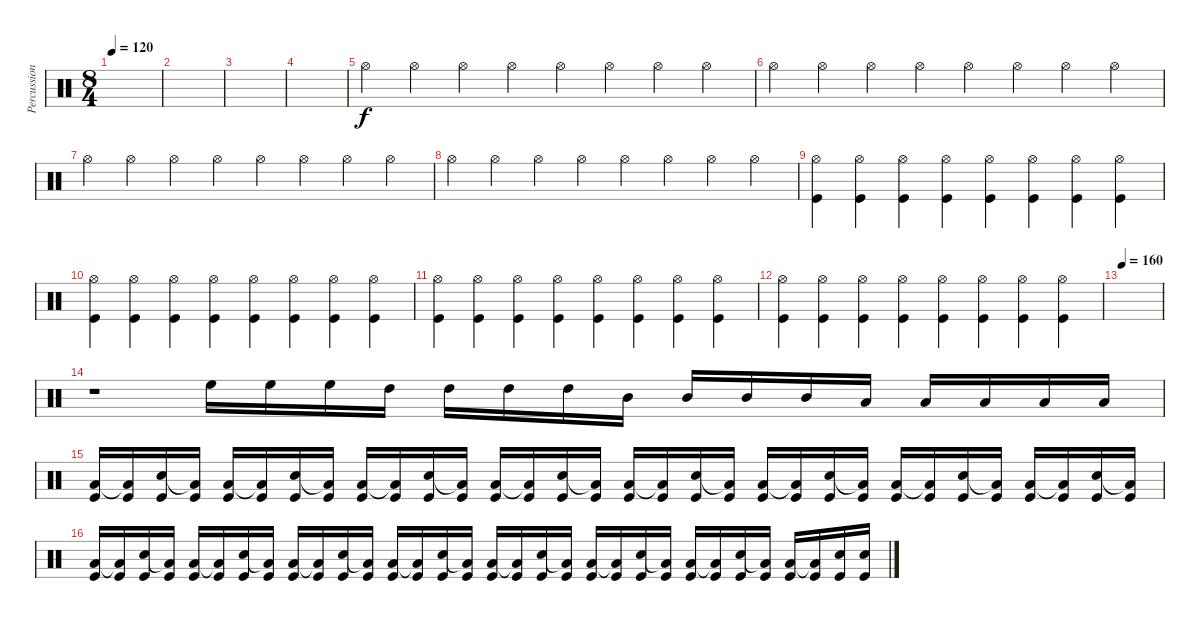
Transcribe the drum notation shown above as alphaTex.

\track ("Percussioni" "Percussion") {instrument percussion}
\staff {score}
\articulation defaults
\ts (8 4)
\tempo 120
\clef neutral
\ks c
|
|
|
|
"Hi-Hat (open)".4 "Hi-Hat (open)".4 "Hi-Hat (open)".4 "Hi-Hat (open)".4 "Hi-Hat (open)".4 "Hi-Hat (open)".4 "Hi-Hat (open)".4 "Hi-Hat (open)".4 |
"Hi-Hat (open)".4 "Hi-Hat (open)".4 "Hi-Hat (open)".4 "Hi-Hat (open)".4 "Hi-Hat (open)".4 "Hi-Hat (open)".4 "Hi-Hat (open)".4 "Hi-Hat (open)".4 |
"Hi-Hat (open)".4 "Hi-Hat (open)".4 "Hi-Hat (open)".4 "Hi-Hat (open)".4 "Hi-Hat (open)".4 "Hi-Hat (open)".4 "Hi-Hat (open)".4 "Hi-Hat (open)".4 |
"Hi-Hat (open)".4 "Hi-Hat (open)".4 "Hi-Hat (open)".4 "Hi-Hat (open)".4 "Hi-Hat (open)".4 "Hi-Hat (open)".4 "Hi-Hat (open)".4 "Hi-Hat (open)".4 |
("Hi-Hat (open)" "Kick (hit)").4 ("Hi-Hat (open)" "Kick (hit)").4 ("Hi-Hat (open)" "Kick (hit)").4 ("Hi-Hat (open)" "Kick (hit)").4 ("Hi-Hat (open)" "Kick (hit)").4 ("Hi-Hat (open)" "Kick (hit)").4 ("Hi-Hat (open)" "Kick (hit)").4 ("Hi-Hat (open)" "Kick (hit)").4 |
("Hi-Hat (open)" "Kick (hit)").4 ("Hi-Hat (open)" "Kick (hit)").4 ("Hi-Hat (open)" "Kick (hit)").4 ("Hi-Hat (open)" "Kick (hit)").4 ("Hi-Hat (open)" "Kick (hit)").4 ("Hi-Hat (open)" "Kick (hit)").4 ("Hi-Hat (open)" "Kick (hit)").4 ("Hi-Hat (open)" "Kick (hit)").4 |
("Hi-Hat (open)" "Kick (hit)").4 ("Hi-Hat (open)" "Kick (hit)").4 ("Hi-Hat (open)" "Kick (hit)").4 ("Hi-Hat (open)" "Kick (hit)").4 ("Hi-Hat (open)" "Kick (hit)").4 ("Hi-Hat (open)" "Kick (hit)").4 ("Hi-Hat (open)" "Kick (hit)").4 ("Hi-Hat (open)" "Kick (hit)").4 |
("Hi-Hat (open)" "Kick (hit)").4 ("Hi-Hat (open)" "Kick (hit)").4 ("Hi-Hat (open)" "Kick (hit)").4 ("Hi-Hat (open)" "Kick (hit)").4 ("Hi-Hat (open)" "Kick (hit)").4 ("Hi-Hat (open)" "Kick (hit)").4 ("Hi-Hat (open)" "Kick (hit)").4 ("Hi-Hat (open)" "Kick (hit)").4 |
\tempo 160
|
r.1 "High Floor Tom (hit)".16 "High Floor Tom (hit)".16 "High Floor Tom (hit)".16 "High Tom (hit)".16 "High Tom (hit)".16 "High Tom (hit)".16 "High Tom (hit)".16 "Mid Tom (hit)".16 "Mid Tom (hit)".16 "Mid Tom (hit)".16 "Mid Tom (hit)".16 "Low Tom (hit)".16 "Low Tom (hit)".16 "Low Tom (hit)".16 "Low Tom (hit)".16 "Low Tom (hit)".16 |
("Low Tom (hit)" "Kick (hit)").16 ("Low Tom (hit)"{t} "Kick (hit)").16 ("Snare (hit) 2" "Kick (hit)").16 ("Low Tom (hit)"{t} "Kick (hit)").16 ("Low Tom (hit)" "Kick (hit)").16 ("Low Tom (hit)"{t} "Kick (hit)").16 ("Snare (hit) 2" "Kick (hit)").16 ("Low Tom (hit)"{t} "Kick (hit)").16 ("Low Tom (hit)" "Kick (hit)").16 ("Low Tom (hit)"{t} "Kick (hit)").16 ("Snare (hit) 2" "Kick (hit)").16 ("Low Tom (hit)"{t} "Kick (hit)").16 ("Low Tom (hit)" "Kick (hit)").16 ("Low Tom (hit)"{t} "Kick (hit)").16 ("Snare (hit) 2" "Kick (hit)").16 ("Low Tom (hit)"{t} "Kick (hit)").16 ("Low Tom (hit)" "Kick (hit)").16 ("Low Tom (hit)"{t} "Kick (hit)").16 ("Snare (hit) 2" "Kick (hit)").16 ("Low Tom (hit)"{t} "Kick (hit)").16 ("Low Tom (hit)" "Kick (hit)").16 ("Low Tom (hit)"{t} "Kick (hit)").16 ("Snare (hit) 2" "Kick (hit)").16 ("Low Tom (hit)"{t} "Kick (hit)").16 ("Low Tom (hit)" "Kick (hit)").16 ("Low Tom (hit)"{t} "Kick (hit)").16 ("Snare (hit) 2" "Kick (hit)").16 ("Low Tom (hit)"{t} "Kick (hit)").16 ("Low Tom (hit)" "Kick (hit)").16 ("Low Tom (hit)"{t} "Kick (hit)").16 ("Snare (hit) 2" "Kick (hit)").16 ("Low Tom (hit)"{t} "Kick (hit)").16 |
("Low Tom (hit)" "Kick (hit)").16 ("Low Tom (hit)"{t} "Kick (hit)").16 ("Snare (hit) 2" "Kick (hit)").16 ("Low Tom (hit)"{t} "Kick (hit)").16 ("Low Tom (hit)" "Kick (hit)").16 ("Low Tom (hit)"{t} "Kick (hit)").16 ("Snare (hit) 2" "Kick (hit)").16 ("Low Tom (hit)"{t} "Kick (hit)").16 ("Low Tom (hit)" "Kick (hit)").16 ("Low Tom (hit)"{t} "Kick (hit)").16 ("Snare (hit) 2" "Kick (hit)").16 ("Low Tom (hit)"{t} "Kick (hit)").16 ("Low Tom (hit)" "Kick (hit)").16 ("Low Tom (hit)"{t} "Kick (hit)").16 ("Snare (hit) 2" "Kick (hit)").16 ("Low Tom (hit)"{t} "Kick (hit)").16 ("Low Tom (hit)" "Kick (hit)").16 ("Low Tom (hit)"{t} "Kick (hit)").16 ("Snare (hit) 2" "Kick (hit)").16 ("Low Tom (hit)"{t} "Kick (hit)").16 ("Low Tom (hit)" "Kick (hit)").16 ("Low Tom (hit)"{t} "Kick (hit)").16 ("Snare (hit) 2" "Kick (hit)").16 ("Low Tom (hit)"{t} "Kick (hit)").16 ("Low Tom (hit)" "Kick (hit)").16 ("Low Tom (hit)"{t} "Kick (hit)").16 ("Snare (hit) 2" "Kick (hit)").16 ("Low Tom (hit)"{t} "Kick (hit)").16 ("Low Tom (hit)" "Kick (hit)").16 ("Low Tom (hit)"{t} "Kick (hit)").16 ("Snare (hit) 2" "Kick (hit)").16 ("Snare (hit) 2" "Kick (hit)").16
